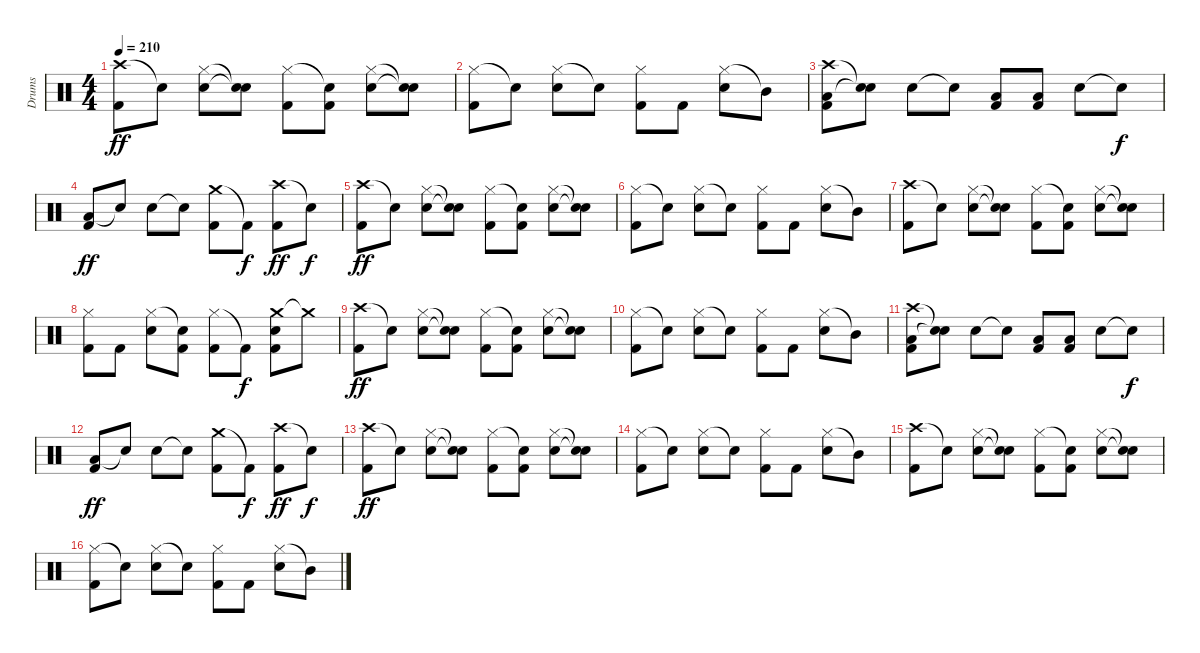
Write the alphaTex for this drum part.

\track ("Drums" "Drums") {instrument percussion}
\staff {score}
\articulation defaults
\ts (4 4)
\tempo 210
\clef neutral
\ks c
("Crash high (hit)" "Kick (hit) 2").8{dy ff} "Snare (hit)"{t}.8 ("Hi-Hat (closed)" "Electric Snare (hit)").8 ("Snare (hit)"{t} "Snare (hit)"{t}).8 ("Hi-Hat (closed)" "Kick (hit) 2").8 ("Snare (hit)"{t} "Kick (hit) 2").8 ("Hi-Hat (closed)" "Electric Snare (hit)").8 ("Snare (hit)"{t} "Snare (hit)"{t}).8 |
("Hi-Hat (closed)" "Kick (hit) 2").8 "Snare (hit)"{t}.8 ("Hi-Hat (closed)" "Electric Snare (hit)").8 "Snare (hit)"{t}.8 ("Hi-Hat (closed)" "Kick (hit) 2").8 "Kick (hit) 2".8 ("Hi-Hat (closed)" "Electric Snare (hit)").8 "Mid Tom (hit)"{t}.8 |
("Crash high (hit)" "Low Floor Tom (hit)" "Kick (hit) 2").8 ("Snare (hit)"{t} "Snare (hit)"{t}).8 "Electric Snare (hit)".8 "Snare (hit)"{t}.8 ("Low Floor Tom (hit)" "Kick (hit) 2").8 ("Low Floor Tom (hit)" "Kick (hit) 2").8 "Electric Snare (hit)".8 "Snare (hit)"{t}.8{dy f} |
("Low Floor Tom (hit)" "Kick (hit) 2").8{dy ff} "Snare (hit)"{t}.8 "Electric Snare (hit)".8 "Snare (hit)"{t}.8 ("Crash medium (hit)" "Kick (hit) 2").8 "Kick (hit) 2"{t}.8{dy f} ("Crash high (hit)" "Kick (hit) 2").8{dy ff} "Snare (hit)"{t}.8{dy f} |
("Crash high (hit)" "Kick (hit) 2").8{dy ff} "Snare (hit)"{t}.8 ("Hi-Hat (closed)" "Electric Snare (hit)").8 ("Snare (hit)"{t} "Snare (hit)"{t}).8 ("Hi-Hat (closed)" "Kick (hit) 2").8 ("Snare (hit)"{t} "Kick (hit) 2").8 ("Hi-Hat (closed)" "Electric Snare (hit)").8 ("Snare (hit)"{t} "Snare (hit)"{t}).8 |
("Hi-Hat (closed)" "Kick (hit) 2").8 "Snare (hit)"{t}.8 ("Hi-Hat (closed)" "Electric Snare (hit)").8 "Snare (hit)"{t}.8 ("Hi-Hat (closed)" "Kick (hit) 2").8 "Kick (hit) 2".8 ("Hi-Hat (closed)" "Electric Snare (hit)").8 "Mid Tom (hit)"{t}.8 |
("Crash high (hit)" "Kick (hit) 2").8 "Snare (hit)"{t}.8 ("Hi-Hat (closed)" "Electric Snare (hit)").8 ("Snare (hit)"{t} "Snare (hit)"{t}).8 ("Hi-Hat (closed)" "Kick (hit) 2").8 ("Snare (hit)"{t} "Kick (hit) 2").8 ("Hi-Hat (closed)" "Electric Snare (hit)").8 ("Snare (hit)"{t} "Snare (hit)"{t}).8 |
("Hi-Hat (closed)" "Kick (hit) 2").8 "Kick (hit) 2".8 ("Hi-Hat (closed)" "Electric Snare (hit)").8 ("Snare (hit)"{t} "Kick (hit) 2").8 ("Hi-Hat (closed)" "Kick (hit) 2").8 "Kick (hit) 2"{t}.8{dy f} ("Crash medium (hit)" "Electric Snare (hit)" "Kick (hit) 2").8 "Crash medium (hit)"{t}.8 |
("Crash high (hit)" "Kick (hit) 2").8{dy ff} "Snare (hit)"{t}.8 ("Hi-Hat (closed)" "Electric Snare (hit)").8 ("Snare (hit)"{t} "Snare (hit)"{t}).8 ("Hi-Hat (closed)" "Kick (hit) 2").8 ("Snare (hit)"{t} "Kick (hit) 2").8 ("Hi-Hat (closed)" "Electric Snare (hit)").8 ("Snare (hit)"{t} "Snare (hit)"{t}).8 |
("Hi-Hat (closed)" "Kick (hit) 2").8 "Snare (hit)"{t}.8 ("Hi-Hat (closed)" "Electric Snare (hit)").8 "Snare (hit)"{t}.8 ("Hi-Hat (closed)" "Kick (hit) 2").8 "Kick (hit) 2".8 ("Hi-Hat (closed)" "Electric Snare (hit)").8 "Mid Tom (hit)"{t}.8 |
("Crash high (hit)" "Low Floor Tom (hit)" "Kick (hit) 2").8 ("Snare (hit)"{t} "Snare (hit)"{t}).8 "Electric Snare (hit)".8 "Snare (hit)"{t}.8 ("Low Floor Tom (hit)" "Kick (hit) 2").8 ("Low Floor Tom (hit)" "Kick (hit) 2").8 "Electric Snare (hit)".8 "Snare (hit)"{t}.8{dy f} |
("Low Floor Tom (hit)" "Kick (hit) 2").8{dy ff} "Snare (hit)"{t}.8 "Electric Snare (hit)".8 "Snare (hit)"{t}.8 ("Crash medium (hit)" "Kick (hit) 2").8 "Kick (hit) 2"{t}.8{dy f} ("Crash high (hit)" "Kick (hit) 2").8{dy ff} "Snare (hit)"{t}.8{dy f} |
("Crash high (hit)" "Kick (hit) 2").8{dy ff} "Snare (hit)"{t}.8 ("Hi-Hat (closed)" "Electric Snare (hit)").8 ("Snare (hit)"{t} "Snare (hit)"{t}).8 ("Hi-Hat (closed)" "Kick (hit) 2").8 ("Snare (hit)"{t} "Kick (hit) 2").8 ("Hi-Hat (closed)" "Electric Snare (hit)").8 ("Snare (hit)"{t} "Snare (hit)"{t}).8 |
("Hi-Hat (closed)" "Kick (hit) 2").8 "Snare (hit)"{t}.8 ("Hi-Hat (closed)" "Electric Snare (hit)").8 "Snare (hit)"{t}.8 ("Hi-Hat (closed)" "Kick (hit) 2").8 "Kick (hit) 2".8 ("Hi-Hat (closed)" "Electric Snare (hit)").8 "Mid Tom (hit)"{t}.8 |
("Crash high (hit)" "Kick (hit) 2").8 "Snare (hit)"{t}.8 ("Hi-Hat (closed)" "Electric Snare (hit)").8 ("Snare (hit)"{t} "Snare (hit)"{t}).8 ("Hi-Hat (closed)" "Kick (hit) 2").8 ("Snare (hit)"{t} "Kick (hit) 2").8 ("Hi-Hat (closed)" "Electric Snare (hit)").8 ("Snare (hit)"{t} "Snare (hit)"{t}).8 |
("Hi-Hat (closed)" "Kick (hit) 2").8 "Snare (hit)"{t}.8 ("Hi-Hat (closed)" "Electric Snare (hit)").8 "Snare (hit)"{t}.8 ("Hi-Hat (closed)" "Kick (hit) 2").8 "Kick (hit) 2".8 ("Hi-Hat (closed)" "Electric Snare (hit)").8 "Mid Tom (hit)"{t}.8
